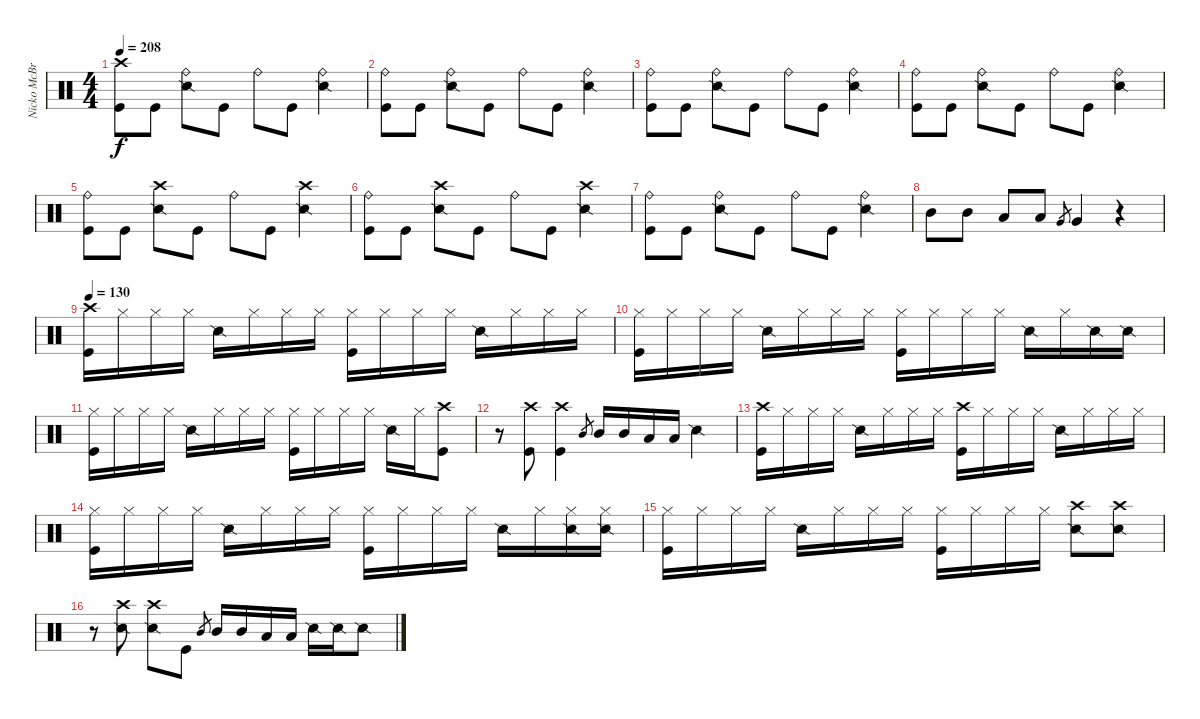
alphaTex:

\track ("Nicko McBrain" "Nicko McBr") {instrument percussion}
\staff {score}
\articulation defaults
\ts (4 4)
\tempo 208
\clef neutral
\ks c
("Crash high (hit)" "Kick (hit)").8{dy f} "Kick (hit)".8 ("Ride (bell)" "Snare (side stick) 2").8 "Kick (hit)".8 "Ride (bell)".8 "Kick (hit)".8 ("Ride (bell)" "Snare (side stick) 2").4 |
("Ride (bell)" "Kick (hit)").8 "Kick (hit)".8 ("Ride (bell)" "Snare (side stick) 2").8 "Kick (hit)".8 "Ride (bell)".8 "Kick (hit)".8 ("Ride (bell)" "Snare (side stick) 2").4 |
("Ride (bell)" "Kick (hit)").8 "Kick (hit)".8 ("Ride (bell)" "Snare (side stick) 2").8 "Kick (hit)".8 "Ride (bell)".8 "Kick (hit)".8 ("Ride (bell)" "Snare (side stick) 2").4 |
("Ride (bell)" "Kick (hit)").8 "Kick (hit)".8 ("Ride (bell)" "Snare (side stick) 2").8 "Kick (hit)".8 "Ride (bell)".8 "Kick (hit)".8 ("Ride (bell)" "Snare (side stick) 2").4 |
("Ride (bell)" "Kick (hit)").8 "Kick (hit)".8 ("Crash high (hit)" "Snare (side stick) 2").8 "Kick (hit)".8 "Ride (bell)".8 "Kick (hit)".8 ("Crash high (hit)" "Snare (side stick) 2").4 |
("Ride (bell)" "Kick (hit)").8 "Kick (hit)".8 ("Crash high (hit)" "Snare (side stick) 2").8 "Kick (hit)".8 "Ride (bell)".8 "Kick (hit)".8 ("Crash high (hit)" "Snare (side stick) 2").4 |
("Ride (bell)" "Kick (hit)").8 "Kick (hit)".8 ("Ride (bell)" "Snare (side stick) 2").8 "Kick (hit)".8 "Ride (bell)".8 "Kick (hit)".8 ("Ride (bell)" "Snare (side stick) 2").4 |
"Mid Tom (hit)".8 "Mid Tom (hit)".8 "Low Tom (hit)".8 "Low Tom (hit)".8 "Very Low Tom (hit)".8{gr} "Very Low Tom (hit)".4 r.4 |
\tempo 130
("Crash high (hit)" "Kick (hit)").16 "Hi-Hat (closed)".16 "Hi-Hat (closed)".16 "Hi-Hat (closed)".16 "Snare (side stick) 2".16 "Hi-Hat (closed)".16 "Hi-Hat (closed)".16 "Hi-Hat (closed)".16 ("Hi-Hat (closed)" "Kick (hit)").16 "Hi-Hat (closed)".16 "Hi-Hat (closed)".16 "Hi-Hat (closed)".16 "Snare (side stick) 2".16 "Hi-Hat (closed)".16 "Hi-Hat (closed)".16 "Hi-Hat (closed)".16 |
("Hi-Hat (closed)" "Kick (hit)").16 "Hi-Hat (closed)".16 "Hi-Hat (closed)".16 "Hi-Hat (closed)".16 "Snare (side stick) 2".16 "Hi-Hat (closed)".16 "Hi-Hat (closed)".16 "Hi-Hat (closed)".16 ("Hi-Hat (closed)" "Kick (hit)").16 "Hi-Hat (closed)".16 "Hi-Hat (closed)".16 "Hi-Hat (closed)".16 "Snare (side stick) 2".16 "Hi-Hat (closed)".16 "Snare (side stick) 2".16 "Snare (side stick) 2".16 |
("Hi-Hat (closed)" "Kick (hit)").16 "Hi-Hat (closed)".16 "Hi-Hat (closed)".16 "Hi-Hat (closed)".16 "Snare (side stick) 2".16 "Hi-Hat (closed)".16 "Hi-Hat (closed)".16 "Hi-Hat (closed)".16 ("Hi-Hat (closed)" "Kick (hit)").16 "Hi-Hat (closed)".16 "Hi-Hat (closed)".16 "Hi-Hat (closed)".16 "Snare (side stick) 2".16 "Hi-Hat (closed)".16 ("Crash high (hit)" "Kick (hit)").8 |
r.8 ("Crash high (hit)" "Kick (hit)").8 ("Crash high (hit)" "Kick (hit)").4 "Mid Tom (hit)".8{gr} "Mid Tom (hit)".16 "Mid Tom (hit)".16 "Low Tom (hit)".16 "Low Tom (hit)".16 "Snare (side stick) 2".4 |
("Crash high (hit)" "Kick (hit)").16 "Hi-Hat (closed)".16 "Hi-Hat (closed)".16 "Hi-Hat (closed)".16 "Snare (side stick) 2".16 "Hi-Hat (closed)".16 "Hi-Hat (closed)".16 "Hi-Hat (closed)".16 ("Crash high (hit)" "Kick (hit)").16 "Hi-Hat (closed)".16 "Hi-Hat (closed)".16 "Hi-Hat (closed)".16 "Snare (side stick) 2".16 "Hi-Hat (closed)".16 "Hi-Hat (closed)".16 "Hi-Hat (closed)".16 |
("Hi-Hat (closed)" "Kick (hit)").16 "Hi-Hat (closed)".16 "Hi-Hat (closed)".16 "Hi-Hat (closed)".16 "Snare (side stick) 2".16 "Hi-Hat (closed)".16 "Hi-Hat (closed)".16 "Hi-Hat (closed)".16 ("Hi-Hat (closed)" "Kick (hit)").16 "Hi-Hat (closed)".16 "Hi-Hat (closed)".16 "Hi-Hat (closed)".16 "Snare (side stick) 2".16 "Hi-Hat (closed)".16 ("Hi-Hat (closed)" "Snare (side stick) 2").16 ("Hi-Hat (closed)" "Snare (side stick) 2").16 |
("Hi-Hat (closed)" "Kick (hit)").16 "Hi-Hat (closed)".16 "Hi-Hat (closed)".16 "Hi-Hat (closed)".16 "Snare (side stick) 2".16 "Hi-Hat (closed)".16 "Hi-Hat (closed)".16 "Hi-Hat (closed)".16 ("Hi-Hat (closed)" "Kick (hit)").16 "Hi-Hat (closed)".16 "Hi-Hat (closed)".16 "Hi-Hat (closed)".16 ("Crash high (hit)" "Snare (side stick) 2").8 ("Crash high (hit)" "Snare (side stick) 2").8 |
r.8 ("Crash high (hit)" "Snare (side stick) 2").8 ("Crash high (hit)" "Snare (side stick) 2").8 "Kick (hit)".8 "Mid Tom (hit)".8{gr} "Mid Tom (hit)".16 "Mid Tom (hit)".16 "Low Tom (hit)".16 "Low Tom (hit)".16 "Snare (side stick) 2".16 "Snare (side stick) 2".16 "Snare (side stick) 2".8
